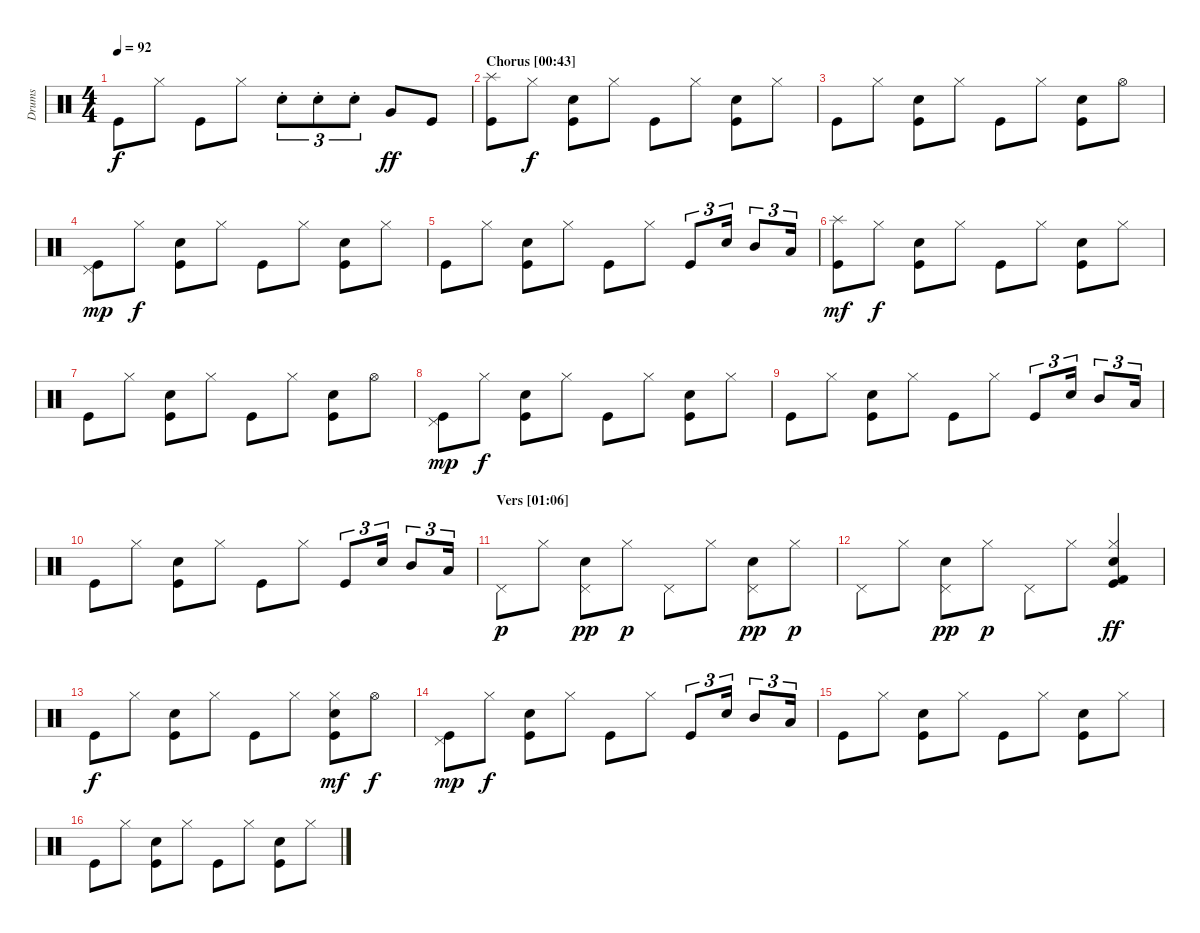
\track ("Drums" "Drums") {instrument percussion}
\staff {score}
\articulation defaults
\ts (4 4)
\tempo 92
\clef neutral
\ks c "Kick (hit)".8{dy f} "Hi-Hat (closed)".8 "Kick (hit)".8 "Hi-Hat (closed)".8 "Electric Snare (hit)"{st}.8{tu (3 2)} "Electric Snare (hit)"{st}.8{tu (3 2)} "Electric Snare (hit)"{st}.8{tu (3 2)} "Very Low Tom (hit)".8{dy ff} "Kick (hit)".8
|
\section ("" "Chorus [00:43]")
("Splash (hit)" "Kick (hit)").8 "Hi-Hat (closed)".8{dy f} ("Electric Snare (hit)" "Kick (hit)").8 "Hi-Hat (closed)".8 "Kick (hit)".8 "Hi-Hat (closed)".8 ("Electric Snare (hit)" "Kick (hit)").8 "Hi-Hat (closed)".8 |
"Kick (hit)".8 "Hi-Hat (closed)".8 ("Electric Snare (hit)" "Kick (hit)").8 "Hi-Hat (closed)".8 "Kick (hit)".8 "Hi-Hat (closed)".8 ("Electric Snare (hit)" "Kick (hit)").8 "Hi-Hat (open)".8 |
("Pedal Hi-Hat (hit)" "Kick (hit)").8{dy mp} "Hi-Hat (closed)".8{dy f} ("Electric Snare (hit)" "Kick (hit)").8 "Hi-Hat (closed)".8 "Kick (hit)".8 "Hi-Hat (closed)".8 ("Electric Snare (hit)" "Kick (hit)").8 "Hi-Hat (closed)".8 |
"Kick (hit)".8 "Hi-Hat (closed)".8 ("Electric Snare (hit)" "Kick (hit)").8 "Hi-Hat (closed)".8 "Kick (hit)".8 "Hi-Hat (closed)".8 "Kick (hit)".8{tu (3 2)} "Electric Snare (hit)".16{tu (3 2)} "Mid Tom (hit)".8{tu (3 2)} "Low Tom (hit)".16{tu (3 2)} |
("Splash (hit)" "Kick (hit)").8{dy mf} "Hi-Hat (closed)".8{dy f} ("Electric Snare (hit)" "Kick (hit)").8 "Hi-Hat (closed)".8 "Kick (hit)".8 "Hi-Hat (closed)".8 ("Electric Snare (hit)" "Kick (hit)").8 "Hi-Hat (closed)".8 |
"Kick (hit)".8 "Hi-Hat (closed)".8 ("Electric Snare (hit)" "Kick (hit)").8 "Hi-Hat (closed)".8 "Kick (hit)".8 "Hi-Hat (closed)".8 ("Electric Snare (hit)" "Kick (hit)").8 "Hi-Hat (open)".8 |
("Pedal Hi-Hat (hit)" "Kick (hit)").8{dy mp} "Hi-Hat (closed)".8{dy f} ("Electric Snare (hit)" "Kick (hit)").8 "Hi-Hat (closed)".8 "Kick (hit)".8 "Hi-Hat (closed)".8 ("Electric Snare (hit)" "Kick (hit)").8 "Hi-Hat (closed)".8 |
\section ("" "")
"Kick (hit)".8 "Hi-Hat (closed)".8 ("Electric Snare (hit)" "Kick (hit)").8 "Hi-Hat (closed)".8 "Kick (hit)".8 "Hi-Hat (closed)".8 "Kick (hit)".8{tu (3 2)} "Electric Snare (hit)".16{tu (3 2)} "Mid Tom (hit)".8{tu (3 2)} "Low Tom (hit)".16{tu (3 2)} |
"Kick (hit)".8 "Hi-Hat (closed)".8 ("Electric Snare (hit)" "Kick (hit)").8 "Hi-Hat (closed)".8 "Kick (hit)".8 "Hi-Hat (closed)".8 "Kick (hit)".8{tu (3 2)} "Electric Snare (hit)".16{tu (3 2)} "Mid Tom (hit)".8{tu (3 2)} "Low Tom (hit)".16{tu (3 2)} |
\section ("" "Vers [01:06]")
"Pedal Hi-Hat (hit)".8{dy p} "Hi-Hat (closed)".8 ("Pedal Hi-Hat (hit)" "Electric Snare (hit)").8{dy pp} "Hi-Hat (closed)".8{dy p} "Pedal Hi-Hat (hit)".8 "Hi-Hat (closed)".8 ("Pedal Hi-Hat (hit)" "Electric Snare (hit)").8{dy pp} "Hi-Hat (closed)".8{dy p} |
"Pedal Hi-Hat (hit)".8 "Hi-Hat (closed)".8 ("Pedal Hi-Hat (hit)" "Electric Snare (hit)").8{dy pp} "Hi-Hat (closed)".8{dy p} "Pedal Hi-Hat (hit)".8 "Hi-Hat (closed)".8 ("Hi-Hat (closed)" "Electric Snare (hit)" "Kick (hit) 2" "Kick (hit)").4{dy ff} |
"Kick (hit)".8{dy f} "Hi-Hat (closed)".8 ("Electric Snare (hit)" "Kick (hit)").8 "Hi-Hat (closed)".8 "Kick (hit)".8 "Hi-Hat (closed)".8 ("Hi-Hat (closed)" "Electric Snare (hit)" "Kick (hit)").8{dy mf} "Hi-Hat (open)".8{dy f} |
("Pedal Hi-Hat (hit)" "Kick (hit)").8{dy mp} "Hi-Hat (closed)".8{dy f} ("Electric Snare (hit)" "Kick (hit)").8 "Hi-Hat (closed)".8 "Kick (hit)".8 "Hi-Hat (closed)".8 "Kick (hit)".8{tu (3 2)} "Electric Snare (hit)".16{tu (3 2)} "Mid Tom (hit)".8{tu (3 2)} "Low Tom (hit)".16{tu (3 2)} |
\section ("" "")
"Kick (hit)".8 "Hi-Hat (closed)".8 ("Electric Snare (hit)" "Kick (hit)").8 "Hi-Hat (closed)".8 "Kick (hit)".8 "Hi-Hat (closed)".8 ("Electric Snare (hit)" "Kick (hit)").8 "Hi-Hat (closed)".8 |
"Kick (hit)".8 "Hi-Hat (closed)".8 ("Electric Snare (hit)" "Kick (hit)").8 "Hi-Hat (closed)".8 "Kick (hit)".8 "Hi-Hat (closed)".8 ("Electric Snare (hit)" "Kick (hit)").8 "Hi-Hat (closed)".8
